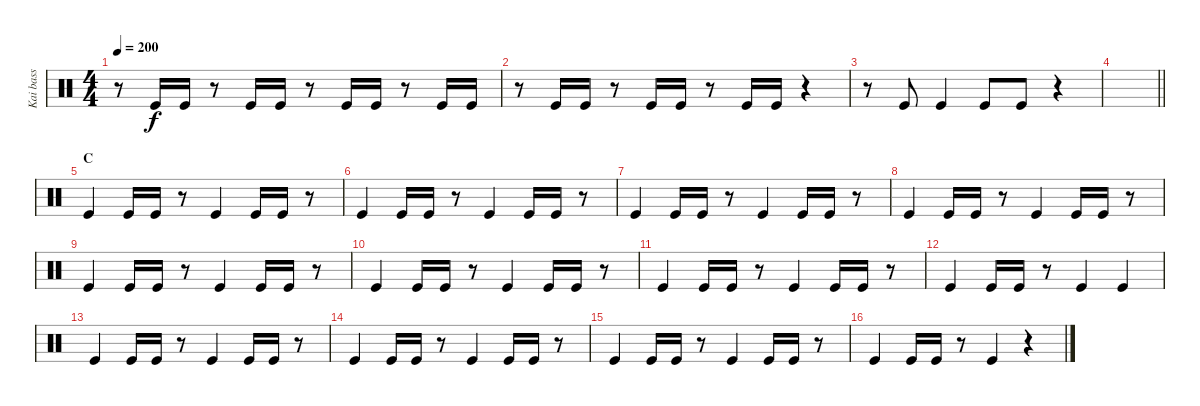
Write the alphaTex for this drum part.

\track ("Kai bass" "Kai bass") {instrument percussion}
\staff {score}
\articulation defaults
\ts (4 4)
\tempo 200
\clef neutral
\ks c
r.8{dy f} "Kick (hit)".16 "Kick (hit)".16 r.8 "Kick (hit)".16 "Kick (hit)".16 r.8 "Kick (hit)".16 "Kick (hit)".16 r.8 "Kick (hit)".16 "Kick (hit)".16 |
r.8 "Kick (hit)".16 "Kick (hit)".16 r.8 "Kick (hit)".16 "Kick (hit)".16 r.8 "Kick (hit)".16 "Kick (hit)".16 r.4 |
r.8 "Kick (hit)".8 "Kick (hit)".4 "Kick (hit)".8 "Kick (hit)".8 r.4 |
\barLineRight lightlight
|
\section ("" "C")
"Kick (hit)".4 "Kick (hit)".16 "Kick (hit)".16 r.8 "Kick (hit)".4 "Kick (hit)".16 "Kick (hit)".16 r.8 |
"Kick (hit)".4 "Kick (hit)".16 "Kick (hit)".16 r.8 "Kick (hit)".4 "Kick (hit)".16 "Kick (hit)".16 r.8 |
"Kick (hit)".4 "Kick (hit)".16 "Kick (hit)".16 r.8 "Kick (hit)".4 "Kick (hit)".16 "Kick (hit)".16 r.8 |
"Kick (hit)".4 "Kick (hit)".16 "Kick (hit)".16 r.8 "Kick (hit)".4 "Kick (hit)".16 "Kick (hit)".16 r.8 |
"Kick (hit)".4 "Kick (hit)".16 "Kick (hit)".16 r.8 "Kick (hit)".4 "Kick (hit)".16 "Kick (hit)".16 r.8 |
"Kick (hit)".4 "Kick (hit)".16 "Kick (hit)".16 r.8 "Kick (hit)".4 "Kick (hit)".16 "Kick (hit)".16 r.8 |
"Kick (hit)".4 "Kick (hit)".16 "Kick (hit)".16 r.8 "Kick (hit)".4 "Kick (hit)".16 "Kick (hit)".16 r.8 |
"Kick (hit)".4 "Kick (hit)".16 "Kick (hit)".16 r.8 "Kick (hit)".4 "Kick (hit)".4 |
"Kick (hit)".4 "Kick (hit)".16 "Kick (hit)".16 r.8 "Kick (hit)".4 "Kick (hit)".16 "Kick (hit)".16 r.8 |
"Kick (hit)".4 "Kick (hit)".16 "Kick (hit)".16 r.8 "Kick (hit)".4 "Kick (hit)".16 "Kick (hit)".16 r.8 |
"Kick (hit)".4 "Kick (hit)".16 "Kick (hit)".16 r.8 "Kick (hit)".4 "Kick (hit)".16 "Kick (hit)".16 r.8 |
"Kick (hit)".4 "Kick (hit)".16 "Kick (hit)".16 r.8 "Kick (hit)".4 r.4
